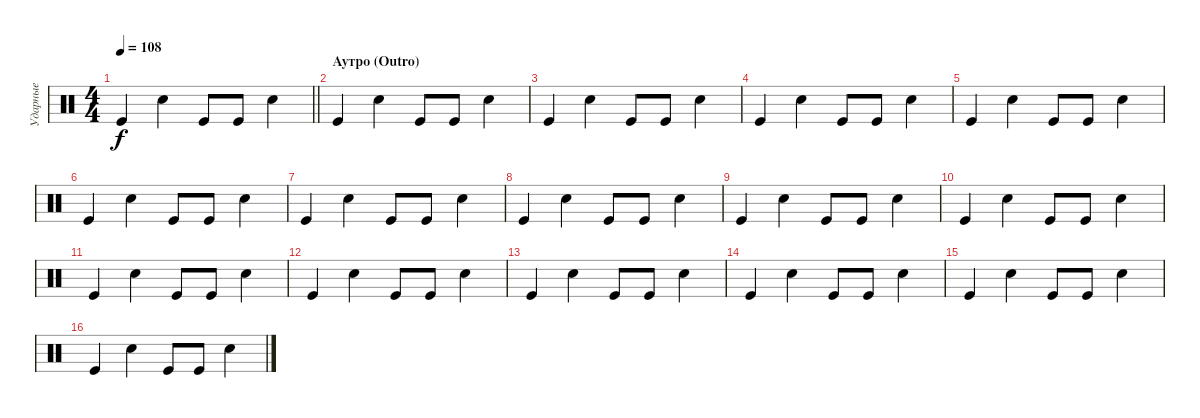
\track ("Ударные" "Ударные") {instrument percussion}
\staff {score}
\articulation defaults
\ts (4 4)
\tempo 108
\clef neutral
\barLineRight lightlight
\ks c "Kick (hit)".4{dy f} "Snare (hit) 2".4 "Kick (hit)".8 "Kick (hit)".8 "Snare (hit) 2".4
|
\section ("" "Аутро (Outro)")
"Kick (hit)".4 "Snare (hit) 2".4 "Kick (hit)".8 "Kick (hit)".8 "Snare (hit) 2".4 |
"Kick (hit)".4 "Snare (hit) 2".4 "Kick (hit)".8 "Kick (hit)".8 "Snare (hit) 2".4 |
"Kick (hit)".4 "Snare (hit) 2".4 "Kick (hit)".8 "Kick (hit)".8 "Snare (hit) 2".4 |
"Kick (hit)".4 "Snare (hit) 2".4 "Kick (hit)".8 "Kick (hit)".8 "Snare (hit) 2".4 |
"Kick (hit)".4 "Snare (hit) 2".4 "Kick (hit)".8 "Kick (hit)".8 "Snare (hit) 2".4 |
"Kick (hit)".4 "Snare (hit) 2".4 "Kick (hit)".8 "Kick (hit)".8 "Snare (hit) 2".4 |
"Kick (hit)".4 "Snare (hit) 2".4 "Kick (hit)".8 "Kick (hit)".8 "Snare (hit) 2".4 |
"Kick (hit)".4 "Snare (hit) 2".4 "Kick (hit)".8 "Kick (hit)".8 "Snare (hit) 2".4 |
"Kick (hit)".4 "Snare (hit) 2".4 "Kick (hit)".8 "Kick (hit)".8 "Snare (hit) 2".4 |
"Kick (hit)".4 "Snare (hit) 2".4 "Kick (hit)".8 "Kick (hit)".8 "Snare (hit) 2".4 |
"Kick (hit)".4 "Snare (hit) 2".4 "Kick (hit)".8 "Kick (hit)".8 "Snare (hit) 2".4 |
"Kick (hit)".4 "Snare (hit) 2".4 "Kick (hit)".8 "Kick (hit)".8 "Snare (hit) 2".4 |
"Kick (hit)".4 "Snare (hit) 2".4 "Kick (hit)".8 "Kick (hit)".8 "Snare (hit) 2".4 |
"Kick (hit)".4 "Snare (hit) 2".4 "Kick (hit)".8 "Kick (hit)".8 "Snare (hit) 2".4 |
"Kick (hit)".4 "Snare (hit) 2".4 "Kick (hit)".8 "Kick (hit)".8 "Snare (hit) 2".4
